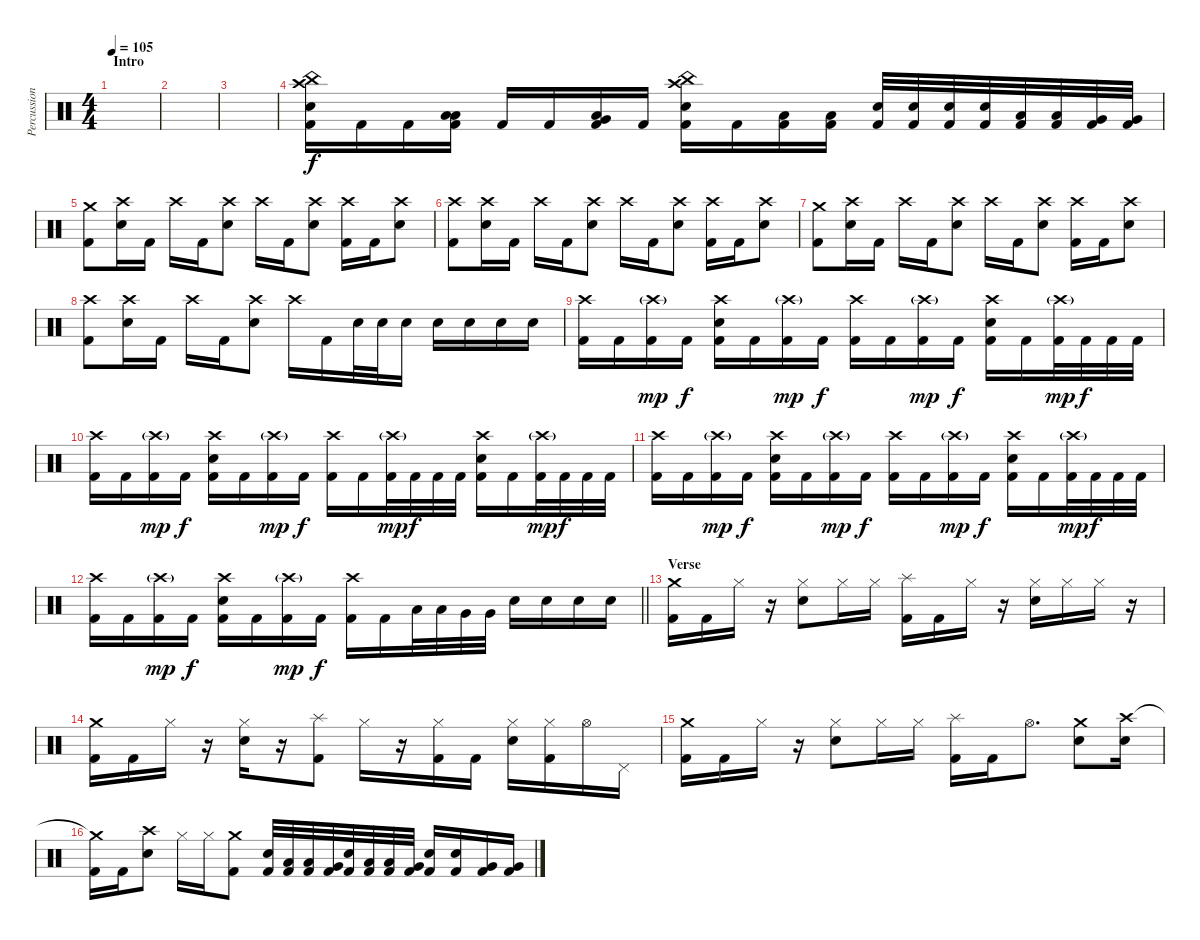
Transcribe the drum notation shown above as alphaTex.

\track ("Percussions" "Percussion") {instrument percussion}
\staff {score}
\articulation defaults
\ts (4 4)
\section ("" "Intro")
\tempo 105
\clef neutral
\ks c
|
|
|
("Crash high (hit)" "China (hit)" "Electric Snare (hit)" "Kick (hit) 2").16 "Kick (hit) 2".16 "Kick (hit) 2".16 ("Low Tom (hit)" "Low Floor Tom (hit)" "Kick (hit) 2").16 "Kick (hit) 2".16 "Kick (hit) 2".16 ("Very Low Tom (hit)" "Low Floor Tom (hit)" "Kick (hit) 2").16 "Kick (hit) 2".16 ("Crash high (hit)" "China (hit)" "Electric Snare (hit)" "Kick (hit) 2").16 "Kick (hit) 2".16 ("Low Tom (hit)" "Kick (hit) 2").16 ("Low Tom (hit)" "Kick (hit) 2").16 ("Electric Snare (hit)" "Kick (hit) 2").32 ("Electric Snare (hit)" "Kick (hit) 2").32 ("Electric Snare (hit)" "Kick (hit) 2").32 ("Electric Snare (hit)" "Kick (hit) 2").32 ("Low Tom (hit)" "Kick (hit) 2").32 ("Low Tom (hit)" "Kick (hit) 2").32 ("Very Low Tom (hit)" "Kick (hit) 2").32 ("Very Low Tom (hit)" "Kick (hit) 2").32 |
("Crash medium (hit)" "Kick (hit) 2").8 ("Crash high (hit)" "Electric Snare (hit)").16 "Kick (hit) 2".16 "Crash high (hit)".16 "Kick (hit) 2".16 ("Crash high (hit)" "Electric Snare (hit)").8 "Crash high (hit)".16 "Kick (hit) 2".16 ("Crash high (hit)" "Electric Snare (hit)").8 ("Crash high (hit)" "Kick (hit) 2").16 "Kick (hit) 2".16 ("Crash high (hit)" "Electric Snare (hit)").8 |
("Crash high (hit)" "Kick (hit) 2").8 ("Crash high (hit)" "Electric Snare (hit)").16 "Kick (hit) 2".16 "Crash high (hit)".16 "Kick (hit) 2".16 ("Crash high (hit)" "Electric Snare (hit)").8 "Crash high (hit)".16 "Kick (hit) 2".16 ("Crash high (hit)" "Electric Snare (hit)").8 ("Crash high (hit)" "Kick (hit) 2").16 "Kick (hit) 2".16 ("Crash high (hit)" "Electric Snare (hit)").8 |
("Crash medium (hit)" "Kick (hit) 2").8 ("Crash high (hit)" "Electric Snare (hit)").16 "Kick (hit) 2".16 "Crash high (hit)".16 "Kick (hit) 2".16 ("Crash high (hit)" "Electric Snare (hit)").8 "Crash high (hit)".16 "Kick (hit) 2".16 ("Crash high (hit)" "Electric Snare (hit)").8 ("Crash high (hit)" "Kick (hit) 2").16 "Kick (hit) 2".16 ("Crash high (hit)" "Electric Snare (hit)").8 |
("Crash high (hit)" "Kick (hit) 2").8 ("Crash high (hit)" "Electric Snare (hit)").16 "Kick (hit) 2".16 "Crash high (hit)".16 "Kick (hit) 2".16 ("Crash high (hit)" "Electric Snare (hit)").8 "Crash high (hit)".16 "Kick (hit) 2".16 "Electric Snare (hit)".32 "Electric Snare (hit)".32 "Electric Snare (hit)".16 "Electric Snare (hit)".16 "Electric Snare (hit)".16 "Electric Snare (hit)".16 "Electric Snare (hit)".16 |
("Crash high (hit)" "Kick (hit) 2").16 "Kick (hit) 2".16 ("Crash high (hit)"{g} "Kick (hit) 2").16{dy mp} "Kick (hit) 2".16{dy f} ("Crash high (hit)" "Electric Snare (hit)" "Kick (hit) 2").16 "Kick (hit) 2".16 ("Crash high (hit)"{g} "Kick (hit) 2").16{dy mp} "Kick (hit) 2".16{dy f} ("Crash high (hit)" "Kick (hit) 2").16 "Kick (hit) 2".16 ("Crash high (hit)"{g} "Kick (hit) 2").16{dy mp} "Kick (hit) 2".16{dy f} ("Crash high (hit)" "Electric Snare (hit)" "Kick (hit) 2").16 "Kick (hit) 2".16 ("Crash high (hit)"{g} "Kick (hit) 2").32{dy mp} "Kick (hit) 2".32{dy f} "Kick (hit) 2".32 "Kick (hit) 2".32 |
("Crash high (hit)" "Kick (hit) 2").16 "Kick (hit) 2".16 ("Crash high (hit)"{g} "Kick (hit) 2").16{dy mp} "Kick (hit) 2".16{dy f} ("Crash high (hit)" "Electric Snare (hit)" "Kick (hit) 2").16 "Kick (hit) 2".16 ("Crash high (hit)"{g} "Kick (hit) 2").16{dy mp} "Kick (hit) 2".16{dy f} ("Crash high (hit)" "Kick (hit) 2").16 "Kick (hit) 2".16 ("Crash high (hit)"{g} "Kick (hit) 2").32{dy mp} "Kick (hit) 2".32{dy f} "Kick (hit) 2".32 "Kick (hit) 2".32 ("Crash high (hit)" "Electric Snare (hit)" "Kick (hit) 2").16 "Kick (hit) 2".16 ("Crash high (hit)"{g} "Kick (hit) 2").32{dy mp} "Kick (hit) 2".32{dy f} "Kick (hit) 2".32 "Kick (hit) 2".32 |
("Crash high (hit)" "Kick (hit) 2").16 "Kick (hit) 2".16 ("Crash high (hit)"{g} "Kick (hit) 2").16{dy mp} "Kick (hit) 2".16{dy f} ("Crash high (hit)" "Electric Snare (hit)" "Kick (hit) 2").16 "Kick (hit) 2".16 ("Crash high (hit)"{g} "Kick (hit) 2").16{dy mp} "Kick (hit) 2".16{dy f} ("Crash high (hit)" "Kick (hit) 2").16 "Kick (hit) 2".16 ("Crash high (hit)"{g} "Kick (hit) 2").16{dy mp} "Kick (hit) 2".16{dy f} ("Crash high (hit)" "Electric Snare (hit)" "Kick (hit) 2").16 "Kick (hit) 2".16 ("Crash high (hit)"{g} "Kick (hit) 2").32{dy mp} "Kick (hit) 2".32{dy f} "Kick (hit) 2".32 "Kick (hit) 2".32 |
\barLineRight lightlight
("Crash high (hit)" "Kick (hit) 2").16 "Kick (hit) 2".16 ("Crash high (hit)"{g} "Kick (hit) 2").16{dy mp} "Kick (hit) 2".16{dy f} ("Crash high (hit)" "Electric Snare (hit)" "Kick (hit) 2").16 "Kick (hit) 2".16 ("Crash high (hit)"{g} "Kick (hit) 2").16{dy mp} "Kick (hit) 2".16{dy f} ("Crash high (hit)" "Kick (hit) 2").16 "Kick (hit) 2".16 "Low Tom (hit)".32 "Low Tom (hit)".32 "Very Low Tom (hit)".32 "Very Low Tom (hit)".32 "Electric Snare (hit)".16 "Electric Snare (hit)".16 "Electric Snare (hit)".16 "Electric Snare (hit)".16 |
\section ("" "Verse")
("Crash medium (hit)" "Kick (hit) 2").16 "Kick (hit) 2".16 "Hi-Hat (closed)".16 r.16 ("Hi-Hat (closed)" "Electric Snare (hit)").8 "Hi-Hat (closed)".16 "Hi-Hat (closed)".16 ("Splash (hit)" "Kick (hit) 2").16 "Kick (hit) 2".16 "Hi-Hat (closed)".16 r.16 ("Hi-Hat (closed)" "Electric Snare (hit)").16 "Hi-Hat (closed)".16 "Hi-Hat (closed)".16 r.16 |
("Crash medium (hit)" "Kick (hit) 2").16 "Kick (hit) 2".16 "Hi-Hat (closed)".16 r.16 ("Hi-Hat (closed)" "Electric Snare (hit)").16 r.16 ("Splash (hit)" "Kick (hit) 2").8 "Hi-Hat (closed)".16 r.16 ("Hi-Hat (closed)" "Kick (hit) 2").16 "Kick (hit) 2".16 ("Hi-Hat (closed)" "Electric Snare (hit)").16 ("Hi-Hat (closed)" "Kick (hit) 2").16 "Hi-Hat (open)".16 "Pedal Hi-Hat (hit)".16 |
("Crash medium (hit)" "Kick (hit) 2").16 "Kick (hit) 2".16 "Hi-Hat (closed)".16 r.16 ("Hi-Hat (closed)" "Electric Snare (hit)").8 "Hi-Hat (closed)".16 "Hi-Hat (closed)".16 ("Splash (hit)" "Kick (hit) 2").16 "Kick (hit) 2".16 "Hi-Hat (open)".8{d} ("Crash medium (hit)" "Electric Snare (hit)").8 ("Crash high (hit)" "Electric Snare (hit)").16 |
("Crash medium (hit)"{t} "Kick (hit) 2").16 "Kick (hit) 2".16 ("Crash high (hit)" "Electric Snare (hit)").8 "Hi-Hat (closed)".16 "Hi-Hat (closed)".16 ("Crash medium (hit)" "Kick (hit) 2").8 ("Electric Snare (hit)" "Kick (hit) 2").32 ("Low Tom (hit)" "Kick (hit) 2").32 ("Low Tom (hit)" "Kick (hit) 2").32 ("Very Low Tom (hit)" "Kick (hit) 2").32 ("Electric Snare (hit)" "Kick (hit) 2").32 ("Low Tom (hit)" "Kick (hit) 2").32 ("Low Tom (hit)" "Kick (hit) 2").32 ("Very Low Tom (hit)" "Kick (hit) 2").32 ("Electric Snare (hit)" "Kick (hit) 2").16 ("Electric Snare (hit)" "Kick (hit) 2").16 ("Very Low Tom (hit)" "Kick (hit) 2").16 ("Very Low Tom (hit)" "Kick (hit) 2").16
